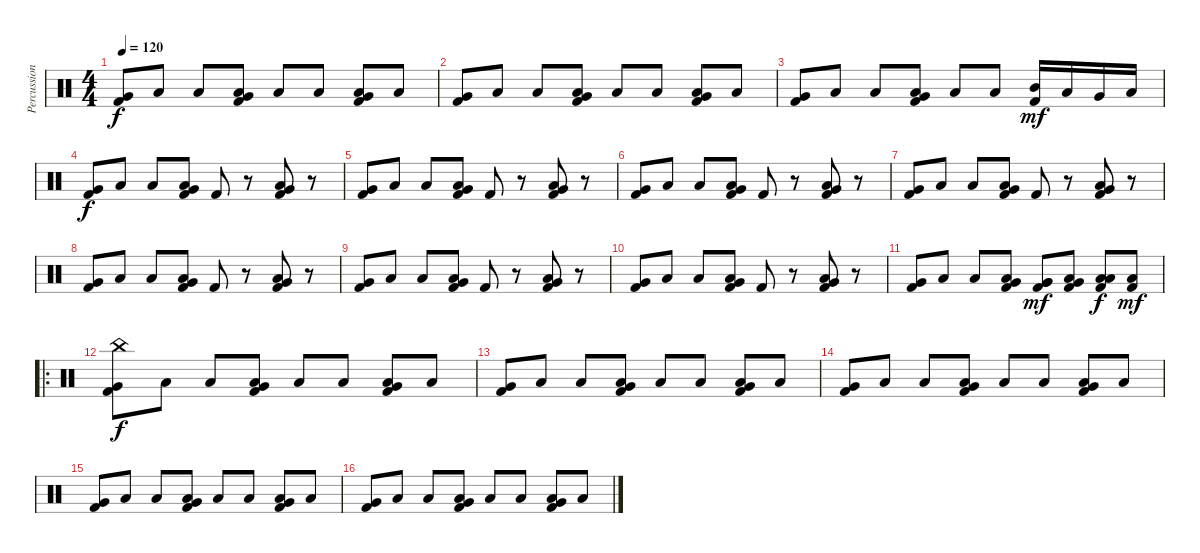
\track ("Percussion" "Percussion") {instrument percussion}
\staff {score}
\articulation defaults
\ts (4 4)
\tempo 120
\clef neutral
\ks c
("Very Low Tom (hit)" "Kick (hit) 2").8{dy f} "Low Floor Tom (hit)".8 "Low Floor Tom (hit)".8 ("Low Floor Tom (hit)" "Very Low Tom (hit)" "Kick (hit) 2").8 "Low Floor Tom (hit)".8 "Low Floor Tom (hit)".8 ("Low Floor Tom (hit)" "Very Low Tom (hit)" "Kick (hit) 2").8 "Low Floor Tom (hit)".8 |
("Very Low Tom (hit)" "Kick (hit) 2").8 "Low Floor Tom (hit)".8 "Low Floor Tom (hit)".8 ("Low Floor Tom (hit)" "Very Low Tom (hit)" "Kick (hit) 2").8 "Low Floor Tom (hit)".8 "Low Floor Tom (hit)".8 ("Low Floor Tom (hit)" "Very Low Tom (hit)" "Kick (hit) 2").8 "Low Floor Tom (hit)".8 |
("Very Low Tom (hit)" "Kick (hit) 2").8 "Low Floor Tom (hit)".8 "Low Floor Tom (hit)".8 ("Low Floor Tom (hit)" "Very Low Tom (hit)" "Kick (hit) 2").8 "Low Floor Tom (hit)".8 "Low Floor Tom (hit)".8 ("Mid Tom (hit)" "Kick (hit) 2").16{dy mf} "Low Tom (hit)".16 "Very Low Tom (hit)".16 "Low Floor Tom (hit)".16 |
("Very Low Tom (hit)" "Kick (hit) 2").8{dy f} "Low Floor Tom (hit)".8 "Low Floor Tom (hit)".8 ("Low Floor Tom (hit)" "Very Low Tom (hit)" "Kick (hit) 2").8 "Kick (hit) 2".8 r.8 ("Low Floor Tom (hit)" "Very Low Tom (hit)" "Kick (hit) 2").8 r.8 |
("Very Low Tom (hit)" "Kick (hit) 2").8 "Low Floor Tom (hit)".8 "Low Floor Tom (hit)".8 ("Low Floor Tom (hit)" "Very Low Tom (hit)" "Kick (hit) 2").8 "Kick (hit) 2".8 r.8 ("Low Floor Tom (hit)" "Very Low Tom (hit)" "Kick (hit) 2").8 r.8 |
("Very Low Tom (hit)" "Kick (hit) 2").8 "Low Floor Tom (hit)".8 "Low Floor Tom (hit)".8 ("Low Floor Tom (hit)" "Very Low Tom (hit)" "Kick (hit) 2").8 "Kick (hit) 2".8 r.8 ("Low Floor Tom (hit)" "Very Low Tom (hit)" "Kick (hit) 2").8 r.8 |
("Very Low Tom (hit)" "Kick (hit) 2").8 "Low Floor Tom (hit)".8 "Low Floor Tom (hit)".8 ("Low Floor Tom (hit)" "Very Low Tom (hit)" "Kick (hit) 2").8 "Kick (hit) 2".8 r.8 ("Low Floor Tom (hit)" "Very Low Tom (hit)" "Kick (hit) 2").8 r.8 |
("Very Low Tom (hit)" "Kick (hit) 2").8 "Low Floor Tom (hit)".8 "Low Floor Tom (hit)".8 ("Low Floor Tom (hit)" "Very Low Tom (hit)" "Kick (hit) 2").8 "Kick (hit) 2".8 r.8 ("Low Floor Tom (hit)" "Very Low Tom (hit)" "Kick (hit) 2").8 r.8 |
("Very Low Tom (hit)" "Kick (hit) 2").8 "Low Floor Tom (hit)".8 "Low Floor Tom (hit)".8 ("Low Floor Tom (hit)" "Very Low Tom (hit)" "Kick (hit) 2").8 "Kick (hit) 2".8 r.8 ("Low Floor Tom (hit)" "Very Low Tom (hit)" "Kick (hit) 2").8 r.8 |
("Very Low Tom (hit)" "Kick (hit) 2").8 "Low Floor Tom (hit)".8 "Low Floor Tom (hit)".8 ("Low Floor Tom (hit)" "Very Low Tom (hit)" "Kick (hit) 2").8 "Kick (hit) 2".8 r.8 ("Low Floor Tom (hit)" "Very Low Tom (hit)" "Kick (hit) 2").8 r.8 |
("Very Low Tom (hit)" "Kick (hit) 2").8 "Low Floor Tom (hit)".8 "Low Floor Tom (hit)".8 ("Low Tom (hit)" "Very Low Tom (hit)" "Kick (hit) 2").8 ("Very Low Tom (hit)" "Very Low Tom (hit)" "Kick (hit) 2").8{dy mf} ("Very Low Tom (hit)" "Low Floor Tom (hit)" "Kick (hit) 2").8 ("Low Floor Tom (hit)" "Low Floor Tom (hit)" "Kick (hit) 2").8{dy f} ("Low Floor Tom (hit)" "Kick (hit) 2").8{dy mf} |
\ro
("China (hit)" "Very Low Tom (hit)" "Kick (hit) 2").8{dy f} "Low Floor Tom (hit)".8 "Low Floor Tom (hit)".8 ("Low Floor Tom (hit)" "Very Low Tom (hit)" "Kick (hit) 2").8 "Low Floor Tom (hit)".8 "Low Floor Tom (hit)".8 ("Low Floor Tom (hit)" "Very Low Tom (hit)" "Kick (hit) 2").8 "Low Floor Tom (hit)".8 |
("Very Low Tom (hit)" "Kick (hit) 2").8 "Low Floor Tom (hit)".8 "Low Floor Tom (hit)".8 ("Low Floor Tom (hit)" "Very Low Tom (hit)" "Kick (hit) 2").8 "Low Floor Tom (hit)".8 "Low Floor Tom (hit)".8 ("Low Floor Tom (hit)" "Very Low Tom (hit)" "Kick (hit) 2").8 "Low Floor Tom (hit)".8 |
("Very Low Tom (hit)" "Kick (hit) 2").8 "Low Floor Tom (hit)".8 "Low Floor Tom (hit)".8 ("Low Floor Tom (hit)" "Very Low Tom (hit)" "Kick (hit) 2").8 "Low Floor Tom (hit)".8 "Low Floor Tom (hit)".8 ("Low Floor Tom (hit)" "Very Low Tom (hit)" "Kick (hit) 2").8 "Low Floor Tom (hit)".8 |
("Very Low Tom (hit)" "Kick (hit) 2").8 "Low Floor Tom (hit)".8 "Low Floor Tom (hit)".8 ("Low Floor Tom (hit)" "Very Low Tom (hit)" "Kick (hit) 2").8 "Low Floor Tom (hit)".8 "Low Floor Tom (hit)".8 ("Low Floor Tom (hit)" "Very Low Tom (hit)" "Kick (hit) 2").8 "Low Floor Tom (hit)".8 |
("Very Low Tom (hit)" "Kick (hit) 2").8 "Low Floor Tom (hit)".8 "Low Floor Tom (hit)".8 ("Low Floor Tom (hit)" "Very Low Tom (hit)" "Kick (hit) 2").8 "Low Floor Tom (hit)".8 "Low Floor Tom (hit)".8 ("Low Floor Tom (hit)" "Very Low Tom (hit)" "Kick (hit) 2").8 "Low Floor Tom (hit)".8
